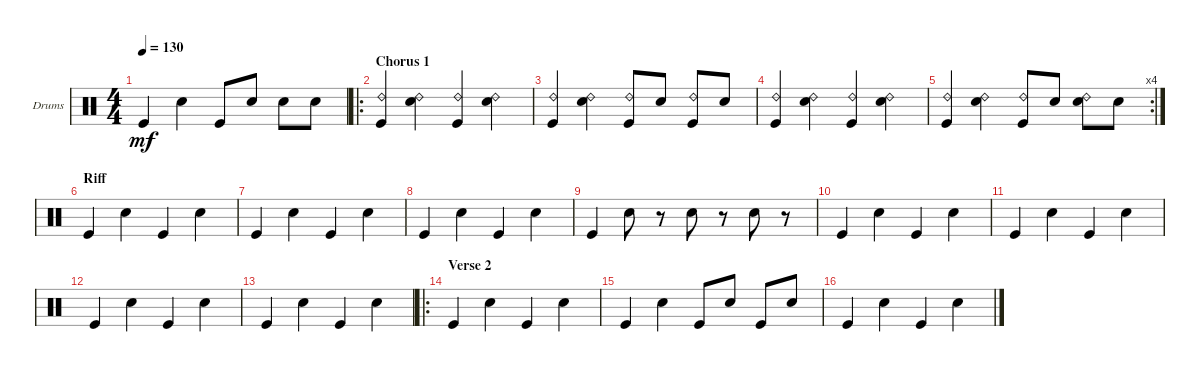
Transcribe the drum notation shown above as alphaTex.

\defaultSystemsLayout 4
\bracketExtendMode groupsimilarinstruments
\firstSystemTrackNameOrientation horizontal
\otherSystemsTrackNameOrientation horizontal
\chordDiagramsInScore
\track ("Drumkit" "Drums") {instrument percussion}
\staff {score}
\articulation defaults
\ts (4 4)
\tempo 130
\clef neutral
\ks c "Kick (hit)".4{dy mf} "Snare (hit) 2".4 "Kick (hit)".8 "Snare (hit) 2".8 "Snare (hit) 2".8 "Snare (hit) 2".8
|
\ro
\section ("" "Chorus 1")
("Kick (hit)" "Ride (bell) 2").4 ("Snare (hit) 2" "Ride (bell) 2").4 ("Kick (hit)" "Ride (bell) 2").4 ("Snare (hit) 2" "Ride (bell) 2").4 |
("Kick (hit)" "Ride (bell) 2").4 ("Snare (hit) 2" "Ride (bell) 2").4 ("Kick (hit)" "Ride (bell) 2").8 "Snare (hit) 2".8 ("Kick (hit)" "Ride (bell) 2").8 "Snare (hit) 2".8 |
("Kick (hit)" "Ride (bell) 2").4 ("Snare (hit) 2" "Ride (bell) 2").4 ("Kick (hit)" "Ride (bell) 2").4 ("Snare (hit) 2" "Ride (bell) 2").4 |
\rc 4
("Kick (hit)" "Ride (bell) 2").4 ("Snare (hit) 2" "Ride (bell) 2").4 ("Kick (hit)" "Ride (bell) 2").8 "Snare (hit) 2".8 ("Snare (hit) 2" "Ride (bell) 2").8 "Snare (hit) 2".8 |
\section ("" "Riff")
"Kick (hit)".4 "Snare (hit) 2".4 "Kick (hit)".4 "Snare (hit) 2".4 |
"Kick (hit)".4 "Snare (hit) 2".4 "Kick (hit)".4 "Snare (hit) 2".4 |
"Kick (hit)".4 "Snare (hit) 2".4 "Kick (hit)".4 "Snare (hit) 2".4 |
"Kick (hit)".4 "Snare (hit) 2".8 r.8 "Snare (hit) 2".8 r.8 "Snare (hit) 2".8 r.8 |
"Kick (hit)".4 "Snare (hit) 2".4 "Kick (hit)".4 "Snare (hit) 2".4 |
"Kick (hit)".4 "Snare (hit) 2".4 "Kick (hit)".4 "Snare (hit) 2".4 |
"Kick (hit)".4 "Snare (hit) 2".4 "Kick (hit)".4 "Snare (hit) 2".4 |
"Kick (hit)".4 "Snare (hit) 2".4 "Kick (hit)".4 "Snare (hit) 2".4 |
\ro
\section ("" "Verse 2")
"Kick (hit)".4 "Snare (hit) 2".4 "Kick (hit)".4 "Snare (hit) 2".4 |
"Kick (hit)".4 "Snare (hit) 2".4 "Kick (hit)".8 "Snare (hit) 2".8 "Kick (hit)".8 "Snare (hit) 2".8 |
"Kick (hit)".4 "Snare (hit) 2".4 "Kick (hit)".4 "Snare (hit) 2".4
